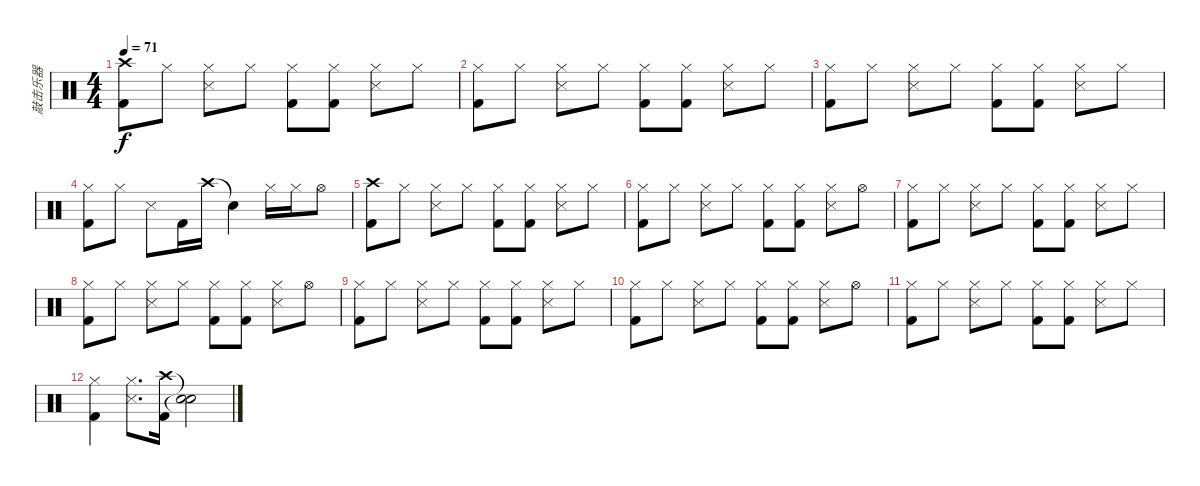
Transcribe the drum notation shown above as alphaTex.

\track ("敲击乐器" "敲击乐器") {instrument percussion}
\staff {score}
\articulation defaults
\ts (4 4)
\tempo 71
\clef neutral
\ks c
("Crash high (hit)" "Kick (hit) 2").8{dy f} "Hi-Hat (closed)".8 ("Hi-Hat (closed)" "Snare (side stick) 3").8 "Hi-Hat (closed)".8 ("Hi-Hat (closed)" "Kick (hit) 2").8 ("Hi-Hat (closed)" "Kick (hit) 2").8 ("Hi-Hat (closed)" "Snare (side stick) 3").8 "Hi-Hat (closed)".8 |
("Hi-Hat (closed)" "Kick (hit) 2").8 "Hi-Hat (closed)".8 ("Hi-Hat (closed)" "Snare (side stick) 3").8 "Hi-Hat (closed)".8 ("Hi-Hat (closed)" "Kick (hit) 2").8 ("Hi-Hat (closed)" "Kick (hit) 2").8 ("Hi-Hat (closed)" "Snare (side stick) 3").8 "Hi-Hat (closed)".8 |
("Hi-Hat (closed)" "Kick (hit) 2").8 "Hi-Hat (closed)".8 ("Hi-Hat (closed)" "Snare (side stick) 3").8 "Hi-Hat (closed)".8 ("Hi-Hat (closed)" "Kick (hit) 2").8 ("Hi-Hat (closed)" "Kick (hit) 2").8 ("Hi-Hat (closed)" "Snare (side stick) 3").8 "Hi-Hat (closed)".8 |
("Hi-Hat (closed)" "Kick (hit) 2").8 "Hi-Hat (closed)".8 "Snare (side stick) 3".8 "Kick (hit) 2".16 "Crash high (hit)".16 "Snare (hit)"{t}.4 "Hi-Hat (closed)".16 "Hi-Hat (closed)".16 "Hi-Hat (open)".8 |
("Crash high (hit)" "Kick (hit) 2").8 "Hi-Hat (closed)".8 ("Hi-Hat (closed)" "Snare (side stick) 3").8 "Hi-Hat (closed)".8 ("Hi-Hat (closed)" "Kick (hit) 2").8 ("Hi-Hat (closed)" "Kick (hit) 2").8 ("Hi-Hat (closed)" "Snare (side stick) 3").8 "Hi-Hat (closed)".8 |
("Hi-Hat (closed)" "Kick (hit) 2").8 "Hi-Hat (closed)".8 ("Hi-Hat (closed)" "Snare (side stick) 3").8 "Hi-Hat (closed)".8 ("Hi-Hat (closed)" "Kick (hit) 2").8 ("Hi-Hat (closed)" "Kick (hit) 2").8 ("Hi-Hat (closed)" "Snare (side stick) 3").8 "Hi-Hat (open)".8 |
("Hi-Hat (closed)" "Kick (hit) 2").8 "Hi-Hat (closed)".8 ("Hi-Hat (closed)" "Snare (side stick) 3").8 "Hi-Hat (closed)".8 ("Hi-Hat (closed)" "Kick (hit) 2").8 ("Hi-Hat (closed)" "Kick (hit) 2").8 ("Hi-Hat (closed)" "Snare (side stick) 3").8 "Hi-Hat (closed)".8 |
("Hi-Hat (closed)" "Kick (hit) 2").8 "Hi-Hat (closed)".8 ("Hi-Hat (closed)" "Snare (side stick) 3").8 "Hi-Hat (closed)".8 ("Hi-Hat (closed)" "Kick (hit) 2").8 ("Hi-Hat (closed)" "Kick (hit) 2").8 ("Hi-Hat (closed)" "Snare (side stick) 3").8 "Hi-Hat (open)".8 |
("Hi-Hat (closed)" "Kick (hit) 2").8 "Hi-Hat (closed)".8 ("Hi-Hat (closed)" "Snare (side stick) 3").8 "Hi-Hat (closed)".8 ("Hi-Hat (closed)" "Kick (hit) 2").8 ("Hi-Hat (closed)" "Kick (hit) 2").8 ("Hi-Hat (closed)" "Snare (side stick) 3").8 "Hi-Hat (closed)".8 |
("Hi-Hat (closed)" "Kick (hit) 2").8 "Hi-Hat (closed)".8 ("Hi-Hat (closed)" "Snare (side stick) 3").8 "Hi-Hat (closed)".8 ("Hi-Hat (closed)" "Kick (hit) 2").8 ("Hi-Hat (closed)" "Kick (hit) 2").8 ("Hi-Hat (closed)" "Snare (side stick) 3").8 "Hi-Hat (open)".8 |
("Hi-Hat (closed)" "Kick (hit) 2").8 "Hi-Hat (closed)".8 ("Hi-Hat (closed)" "Snare (side stick) 3").8 "Hi-Hat (closed)".8 ("Hi-Hat (closed)" "Kick (hit) 2").8 ("Hi-Hat (closed)" "Kick (hit) 2").8 ("Hi-Hat (closed)" "Snare (side stick) 3").8 "Hi-Hat (closed)".8 |
("Hi-Hat (closed)" "Kick (hit) 2").4 ("Hi-Hat (closed)" "Snare (side stick) 3").8{d} ("Crash high (hit)" "Kick (hit) 2").16 ("Snare (hit)"{t} "Snare (hit)"{t}).2
